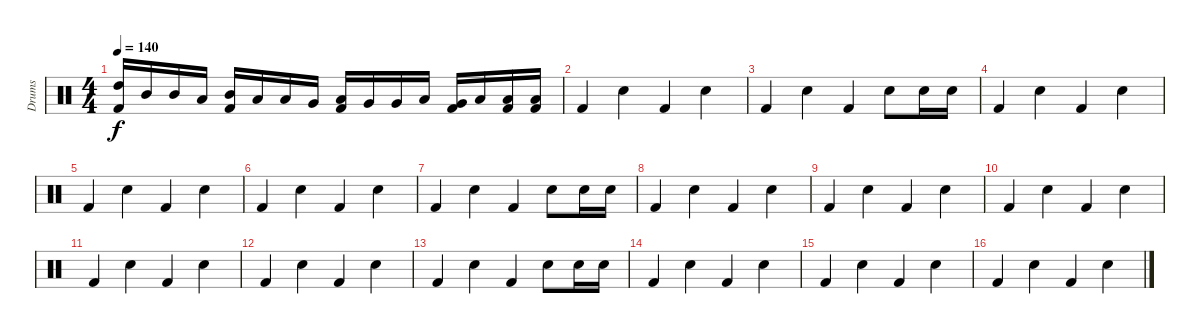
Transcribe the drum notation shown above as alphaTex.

\track ("Drums" "Drums") {instrument percussion}
\staff {score}
\articulation defaults
\ts (4 4)
\tempo 140
\clef neutral
\ks c
("High Tom (hit)" "Kick (hit) 2").16{dy f} "Mid Tom (hit)".16 "Mid Tom (hit)".16 "Low Tom (hit)".16 ("Mid Tom (hit)" "Kick (hit) 2").16 "Low Tom (hit)".16 "Low Tom (hit)".16 "Very Low Tom (hit)".16 ("Low Tom (hit)" "Kick (hit) 2").16 "Very Low Tom (hit)".16 "Very Low Tom (hit)".16 "Low Floor Tom (hit)".16 ("Very Low Tom (hit)" "Kick (hit) 2").16 "Low Floor Tom (hit)".16 ("Low Floor Tom (hit)" "Kick (hit) 2").16 ("Low Floor Tom (hit)" "Kick (hit) 2").16 |
"Kick (hit) 2".4 "Snare (hit) 2".4 "Kick (hit) 2".4 "Snare (hit) 2".4 |
"Kick (hit) 2".4 "Snare (hit) 2".4 "Kick (hit) 2".4 "Snare (hit) 2".8 "Snare (hit) 2".16 "Snare (hit) 2".16 |
"Kick (hit) 2".4 "Snare (hit) 2".4 "Kick (hit) 2".4 "Snare (hit) 2".4 |
"Kick (hit) 2".4 "Snare (hit) 2".4 "Kick (hit) 2".4 "Snare (hit) 2".4 |
"Kick (hit) 2".4 "Snare (hit) 2".4 "Kick (hit) 2".4 "Snare (hit) 2".4 |
"Kick (hit) 2".4 "Snare (hit) 2".4 "Kick (hit) 2".4 "Snare (hit) 2".8 "Snare (hit) 2".16 "Snare (hit) 2".16 |
"Kick (hit) 2".4 "Snare (hit) 2".4 "Kick (hit) 2".4 "Snare (hit) 2".4 |
"Kick (hit) 2".4 "Snare (hit) 2".4 "Kick (hit) 2".4 "Snare (hit) 2".4 |
"Kick (hit) 2".4 "Snare (hit) 2".4 "Kick (hit) 2".4 "Snare (hit) 2".4 |
"Kick (hit) 2".4 "Snare (hit) 2".4 "Kick (hit) 2".4 "Snare (hit) 2".4 |
"Kick (hit) 2".4 "Snare (hit) 2".4 "Kick (hit) 2".4 "Snare (hit) 2".4 |
"Kick (hit) 2".4 "Snare (hit) 2".4 "Kick (hit) 2".4 "Snare (hit) 2".8 "Snare (hit) 2".16 "Snare (hit) 2".16 |
"Kick (hit) 2".4 "Snare (hit) 2".4 "Kick (hit) 2".4 "Snare (hit) 2".4 |
"Kick (hit) 2".4 "Snare (hit) 2".4 "Kick (hit) 2".4 "Snare (hit) 2".4 |
"Kick (hit) 2".4 "Snare (hit) 2".4 "Kick (hit) 2".4 "Snare (hit) 2".4
